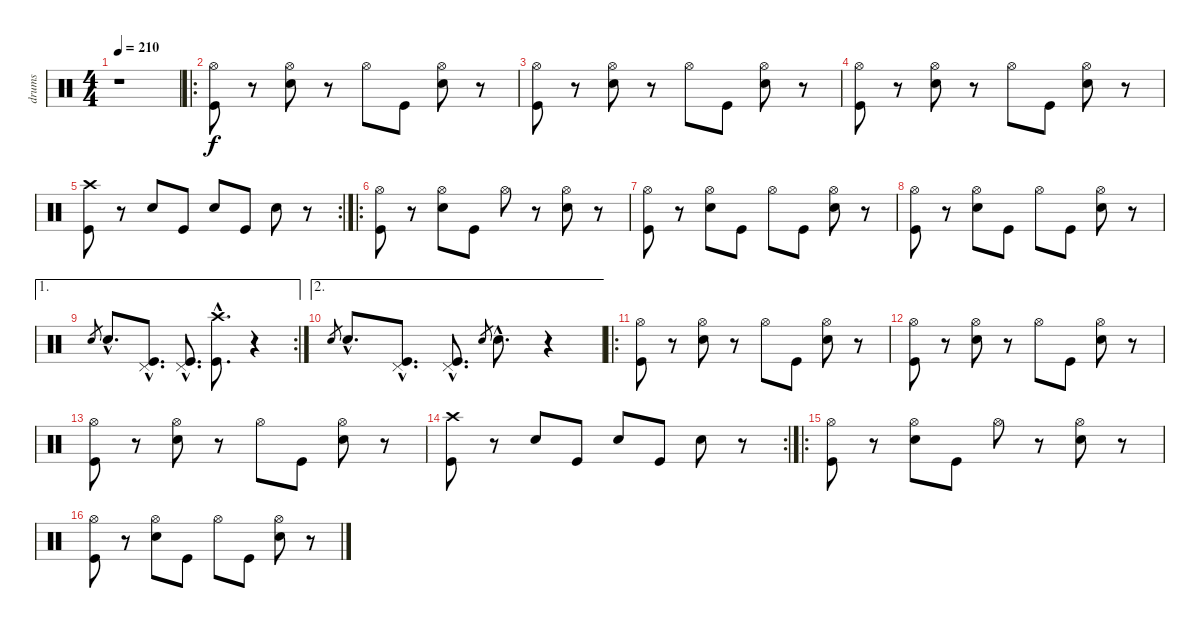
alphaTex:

\track ("drums" "drums") {instrument percussion}
\staff {score}
\articulation defaults
\ts (4 4)
\tempo 210
\clef neutral
\ks c
r.1{dy f} |
\ro
("Hi-Hat (open)" "Kick (hit)").8 r.8 ("Hi-Hat (open)" "Electric Snare (hit)").8 r.8 "Hi-Hat (open)".8 "Kick (hit)".8 ("Hi-Hat (open)" "Electric Snare (hit)").8 r.8 |
("Hi-Hat (open)" "Kick (hit)").8 r.8 ("Hi-Hat (open)" "Electric Snare (hit)").8 r.8 "Hi-Hat (open)".8 "Kick (hit)".8 ("Hi-Hat (open)" "Electric Snare (hit)").8 r.8 |
("Hi-Hat (open)" "Kick (hit)").8 r.8 ("Hi-Hat (open)" "Electric Snare (hit)").8 r.8 "Hi-Hat (open)".8 "Kick (hit)".8 ("Hi-Hat (open)" "Electric Snare (hit)").8 r.8 |
\rc 2
("Crash high (hit)" "Kick (hit)").8 r.8 "Electric Snare (hit)".8 "Kick (hit)".8 "Electric Snare (hit)".8 "Kick (hit)".8 "Electric Snare (hit)".8 r.8 |
\ro
("Hi-Hat (open)" "Kick (hit)").8 r.8 ("Hi-Hat (open)" "Electric Snare (hit)").8 "Kick (hit)".8 "Hi-Hat (open)".8 r.8 ("Hi-Hat (open)" "Electric Snare (hit)").8 r.8 |
("Hi-Hat (open)" "Kick (hit)").8 r.8 ("Hi-Hat (open)" "Electric Snare (hit)").8 "Kick (hit)".8 "Hi-Hat (open)".8 "Kick (hit)".8 ("Hi-Hat (open)" "Electric Snare (hit)").8 r.8 |
("Hi-Hat (open)" "Kick (hit)").8 r.8 ("Hi-Hat (open)" "Electric Snare (hit)").8 "Kick (hit)".8 "Hi-Hat (open)".8 "Kick (hit)".8 ("Hi-Hat (open)" "Electric Snare (hit)").8 r.8 |
\ae 1
\rc 2 "Electric Snare (hit)".8{gr} "Electric Snare (hit)"{hac}.8{d}
("Pedal Hi-Hat (hit)"{hac} "Kick (hit)"{hac}).8{d} ("Pedal Hi-Hat (hit)"{hac} "Kick (hit)"{hac}).8{d} ("Crash high (hit)"{hac} "Kick (hit)"{hac}).8{d} r.4 |
\ae 2 "Electric Snare (hit)".8{gr} "Electric Snare (hit)"{hac}.8{d}
("Pedal Hi-Hat (hit)"{hac} "Kick (hit)"{hac}).8{d} ("Pedal Hi-Hat (hit)"{hac} "Kick (hit)"{hac}).8{d} "Electric Snare (hit)".8{gr} "Electric Snare (hit)"{hac}.8{d} r.4 |
\ro
("Hi-Hat (open)" "Kick (hit)").8 r.8 ("Hi-Hat (open)" "Electric Snare (hit)").8 r.8 "Hi-Hat (open)".8 "Kick (hit)".8 ("Hi-Hat (open)" "Electric Snare (hit)").8 r.8 |
("Hi-Hat (open)" "Kick (hit)").8 r.8 ("Hi-Hat (open)" "Electric Snare (hit)").8 r.8 "Hi-Hat (open)".8 "Kick (hit)".8 ("Hi-Hat (open)" "Electric Snare (hit)").8 r.8 |
("Hi-Hat (open)" "Kick (hit)").8 r.8 ("Hi-Hat (open)" "Electric Snare (hit)").8 r.8 "Hi-Hat (open)".8 "Kick (hit)".8 ("Hi-Hat (open)" "Electric Snare (hit)").8 r.8 |
\rc 2
("Crash high (hit)" "Kick (hit)").8 r.8 "Electric Snare (hit)".8 "Kick (hit)".8 "Electric Snare (hit)".8 "Kick (hit)".8 "Electric Snare (hit)".8 r.8 |
\ro
("Hi-Hat (open)" "Kick (hit)").8 r.8 ("Hi-Hat (open)" "Electric Snare (hit)").8 "Kick (hit)".8 "Hi-Hat (open)".8 r.8 ("Hi-Hat (open)" "Electric Snare (hit)").8 r.8 |
("Hi-Hat (open)" "Kick (hit)").8 r.8 ("Hi-Hat (open)" "Electric Snare (hit)").8 "Kick (hit)".8 "Hi-Hat (open)".8 "Kick (hit)".8 ("Hi-Hat (open)" "Electric Snare (hit)").8 r.8
